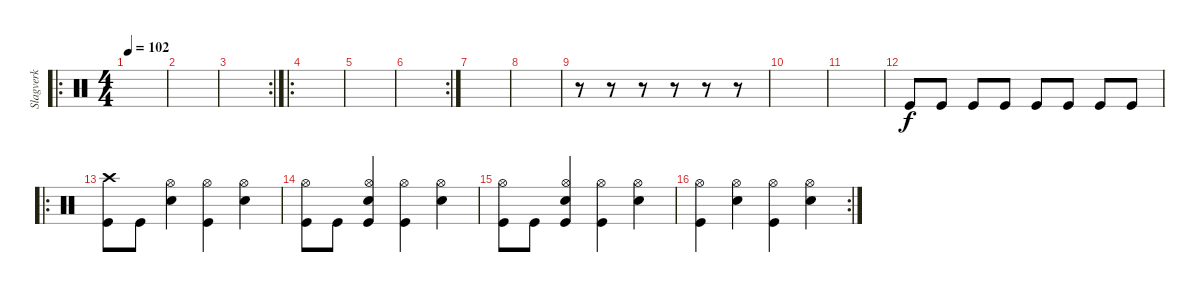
\track ("Slagverk" "Slagverk") {instrument percussion}
\staff {score}
\articulation defaults
\ro
\ts (4 4)
\tempo 102
\clef neutral
\ks c
|
|
\rc 2
|
\ro
|
|
\rc 2
|
|
|
r.8 r.8 r.8 r.8 r.8 r.8 |
|
|
"Kick (hit)".8 "Kick (hit)".8 "Kick (hit)".8 "Kick (hit)".8 "Kick (hit)".8 "Kick (hit)".8 "Kick (hit)".8 "Kick (hit)".8 |
\ro
("Crash high (hit)" "Kick (hit)").8 "Kick (hit)".8 ("Hi-Hat (open)" "Snare (hit) 2").4 ("Hi-Hat (open)" "Kick (hit)").4 ("Hi-Hat (open)" "Snare (hit) 2").4 |
("Hi-Hat (open)" "Kick (hit)").8 "Kick (hit)".8 ("Hi-Hat (open)" "Snare (hit) 2" "Kick (hit)").4 ("Hi-Hat (open)" "Kick (hit)").4 ("Hi-Hat (open)" "Snare (hit) 2").4 |
("Hi-Hat (open)" "Kick (hit)").8 "Kick (hit)".8 ("Hi-Hat (open)" "Snare (hit) 2" "Kick (hit)").4 ("Hi-Hat (open)" "Kick (hit)").4 ("Hi-Hat (open)" "Snare (hit) 2").4 |
\rc 2
("Hi-Hat (open)" "Kick (hit)").4 ("Hi-Hat (open)" "Snare (hit) 2").4 ("Hi-Hat (open)" "Kick (hit)").4 ("Hi-Hat (open)" "Snare (hit) 2").4
